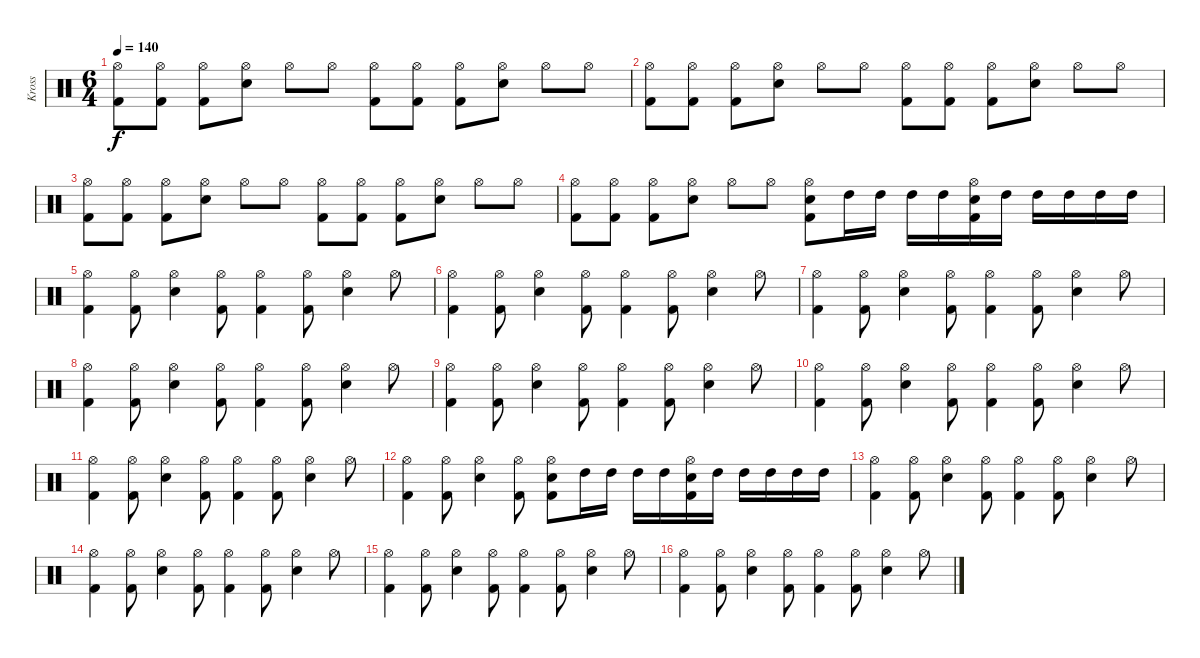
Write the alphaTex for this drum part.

\track ("Kross" "Kross") {instrument percussion}
\staff {score}
\articulation defaults
\ts (6 4)
\tempo 140
\clef neutral
\ks c
("Hi-Hat (open)" "Kick (hit) 2").8{dy f} ("Hi-Hat (open)" "Kick (hit) 2").8 ("Hi-Hat (open)" "Kick (hit) 2").8 ("Hi-Hat (open)" "Electric Snare (hit)").8 "Hi-Hat (open)".8 "Hi-Hat (open)".8 ("Hi-Hat (open)" "Kick (hit) 2").8 ("Hi-Hat (open)" "Kick (hit) 2").8 ("Hi-Hat (open)" "Kick (hit) 2").8 ("Hi-Hat (open)" "Electric Snare (hit)").8 "Hi-Hat (open)".8 "Hi-Hat (open)".8 |
("Hi-Hat (open)" "Kick (hit) 2").8 ("Hi-Hat (open)" "Kick (hit) 2").8 ("Hi-Hat (open)" "Kick (hit) 2").8 ("Hi-Hat (open)" "Electric Snare (hit)").8 "Hi-Hat (open)".8 "Hi-Hat (open)".8 ("Hi-Hat (open)" "Kick (hit) 2").8 ("Hi-Hat (open)" "Kick (hit) 2").8 ("Hi-Hat (open)" "Kick (hit) 2").8 ("Hi-Hat (open)" "Electric Snare (hit)").8 "Hi-Hat (open)".8 "Hi-Hat (open)".8 |
("Hi-Hat (open)" "Kick (hit) 2").8 ("Hi-Hat (open)" "Kick (hit) 2").8 ("Hi-Hat (open)" "Kick (hit) 2").8 ("Hi-Hat (open)" "Electric Snare (hit)").8 "Hi-Hat (open)".8 "Hi-Hat (open)".8 ("Hi-Hat (open)" "Kick (hit) 2").8 ("Hi-Hat (open)" "Kick (hit) 2").8 ("Hi-Hat (open)" "Kick (hit) 2").8 ("Hi-Hat (open)" "Electric Snare (hit)").8 "Hi-Hat (open)".8 "Hi-Hat (open)".8 |
("Hi-Hat (open)" "Kick (hit) 2").8 ("Hi-Hat (open)" "Kick (hit) 2").8 ("Hi-Hat (open)" "Kick (hit) 2").8 ("Hi-Hat (open)" "Electric Snare (hit)").8 "Hi-Hat (open)".8 "Hi-Hat (open)".8 ("Hi-Hat (open)" "Electric Snare (hit)" "Kick (hit) 2").8 "High Tom (hit)".16 "High Tom (hit)".16 "High Tom (hit)".16 "High Tom (hit)".16 ("Hi-Hat (open)" "Electric Snare (hit)" "Kick (hit) 2").16 "High Tom (hit)".16 "High Tom (hit)".16 "High Tom (hit)".16 "High Tom (hit)".16 "High Tom (hit)".16 |
("Hi-Hat (open)" "Kick (hit) 2").4 ("Hi-Hat (open)" "Kick (hit) 2").8 ("Hi-Hat (open)" "Electric Snare (hit)").4 ("Hi-Hat (open)" "Kick (hit) 2").8 ("Hi-Hat (open)" "Kick (hit) 2").4 ("Hi-Hat (open)" "Kick (hit) 2").8 ("Hi-Hat (open)" "Electric Snare (hit)").4 "Hi-Hat (open)".8 |
("Hi-Hat (open)" "Kick (hit) 2").4 ("Hi-Hat (open)" "Kick (hit) 2").8 ("Hi-Hat (open)" "Electric Snare (hit)").4 ("Hi-Hat (open)" "Kick (hit) 2").8 ("Hi-Hat (open)" "Kick (hit) 2").4 ("Hi-Hat (open)" "Kick (hit) 2").8 ("Hi-Hat (open)" "Electric Snare (hit)").4 "Hi-Hat (open)".8 |
("Hi-Hat (open)" "Kick (hit) 2").4 ("Hi-Hat (open)" "Kick (hit) 2").8 ("Hi-Hat (open)" "Electric Snare (hit)").4 ("Hi-Hat (open)" "Kick (hit) 2").8 ("Hi-Hat (open)" "Kick (hit) 2").4 ("Hi-Hat (open)" "Kick (hit) 2").8 ("Hi-Hat (open)" "Electric Snare (hit)").4 "Hi-Hat (open)".8 |
("Hi-Hat (open)" "Kick (hit) 2").4 ("Hi-Hat (open)" "Kick (hit) 2").8 ("Hi-Hat (open)" "Electric Snare (hit)").4 ("Hi-Hat (open)" "Kick (hit) 2").8 ("Hi-Hat (open)" "Kick (hit) 2").4 ("Hi-Hat (open)" "Kick (hit) 2").8 ("Hi-Hat (open)" "Electric Snare (hit)").4 "Hi-Hat (open)".8 |
("Hi-Hat (open)" "Kick (hit) 2").4 ("Hi-Hat (open)" "Kick (hit) 2").8 ("Hi-Hat (open)" "Electric Snare (hit)").4 ("Hi-Hat (open)" "Kick (hit) 2").8 ("Hi-Hat (open)" "Kick (hit) 2").4 ("Hi-Hat (open)" "Kick (hit) 2").8 ("Hi-Hat (open)" "Electric Snare (hit)").4 "Hi-Hat (open)".8 |
("Hi-Hat (open)" "Kick (hit) 2").4 ("Hi-Hat (open)" "Kick (hit) 2").8 ("Hi-Hat (open)" "Electric Snare (hit)").4 ("Hi-Hat (open)" "Kick (hit) 2").8 ("Hi-Hat (open)" "Kick (hit) 2").4 ("Hi-Hat (open)" "Kick (hit) 2").8 ("Hi-Hat (open)" "Electric Snare (hit)").4 "Hi-Hat (open)".8 |
("Hi-Hat (open)" "Kick (hit) 2").4 ("Hi-Hat (open)" "Kick (hit) 2").8 ("Hi-Hat (open)" "Electric Snare (hit)").4 ("Hi-Hat (open)" "Kick (hit) 2").8 ("Hi-Hat (open)" "Kick (hit) 2").4 ("Hi-Hat (open)" "Kick (hit) 2").8 ("Hi-Hat (open)" "Electric Snare (hit)").4 "Hi-Hat (open)".8 |
("Hi-Hat (open)" "Kick (hit) 2").4 ("Hi-Hat (open)" "Kick (hit) 2").8 ("Hi-Hat (open)" "Electric Snare (hit)").4 ("Hi-Hat (open)" "Kick (hit) 2").8 ("Hi-Hat (open)" "Electric Snare (hit)" "Kick (hit) 2").8 "High Tom (hit)".16 "High Tom (hit)".16 "High Tom (hit)".16 "High Tom (hit)".16 ("Hi-Hat (open)" "Electric Snare (hit)" "Kick (hit) 2").16 "High Tom (hit)".16 "High Tom (hit)".16 "High Tom (hit)".16 "High Tom (hit)".16 "High Tom (hit)".16 |
("Hi-Hat (open)" "Kick (hit) 2").4 ("Hi-Hat (open)" "Kick (hit) 2").8 ("Hi-Hat (open)" "Electric Snare (hit)").4 ("Hi-Hat (open)" "Kick (hit) 2").8 ("Hi-Hat (open)" "Kick (hit) 2").4 ("Hi-Hat (open)" "Kick (hit) 2").8 ("Hi-Hat (open)" "Electric Snare (hit)").4 "Hi-Hat (open)".8 |
("Hi-Hat (open)" "Kick (hit) 2").4 ("Hi-Hat (open)" "Kick (hit) 2").8 ("Hi-Hat (open)" "Electric Snare (hit)").4 ("Hi-Hat (open)" "Kick (hit) 2").8 ("Hi-Hat (open)" "Kick (hit) 2").4 ("Hi-Hat (open)" "Kick (hit) 2").8 ("Hi-Hat (open)" "Electric Snare (hit)").4 "Hi-Hat (open)".8 |
("Hi-Hat (open)" "Kick (hit) 2").4 ("Hi-Hat (open)" "Kick (hit) 2").8 ("Hi-Hat (open)" "Electric Snare (hit)").4 ("Hi-Hat (open)" "Kick (hit) 2").8 ("Hi-Hat (open)" "Kick (hit) 2").4 ("Hi-Hat (open)" "Kick (hit) 2").8 ("Hi-Hat (open)" "Electric Snare (hit)").4 "Hi-Hat (open)".8 |
("Hi-Hat (open)" "Kick (hit) 2").4 ("Hi-Hat (open)" "Kick (hit) 2").8 ("Hi-Hat (open)" "Electric Snare (hit)").4 ("Hi-Hat (open)" "Kick (hit) 2").8 ("Hi-Hat (open)" "Kick (hit) 2").4 ("Hi-Hat (open)" "Kick (hit) 2").8 ("Hi-Hat (open)" "Electric Snare (hit)").4 "Hi-Hat (open)".8
